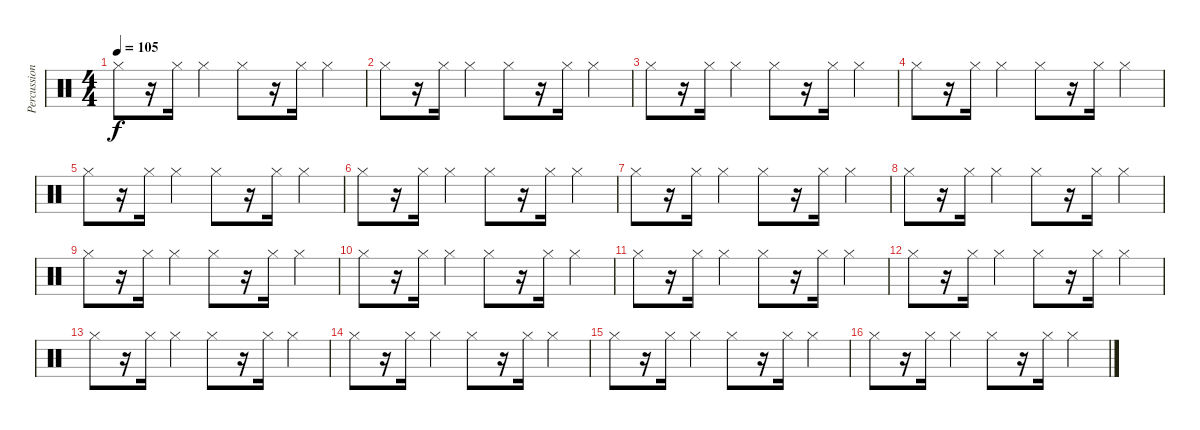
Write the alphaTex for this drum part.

\track ("Percussions" "Percussion") {instrument percussion}
\staff {score}
\articulation defaults
\ts (4 4)
\tempo 105
\clef neutral
\ks c "Hi-Hat (closed)".8{dy f}
r.16 "Hi-Hat (closed)".16 "Hi-Hat (closed)".4 "Hi-Hat (closed)".8 r.16 "Hi-Hat (closed)".16 "Hi-Hat (closed)".4 |
"Hi-Hat (closed)".8 r.16 "Hi-Hat (closed)".16 "Hi-Hat (closed)".4 "Hi-Hat (closed)".8 r.16 "Hi-Hat (closed)".16 "Hi-Hat (closed)".4 |
"Hi-Hat (closed)".8 r.16 "Hi-Hat (closed)".16 "Hi-Hat (closed)".4 "Hi-Hat (closed)".8 r.16 "Hi-Hat (closed)".16 "Hi-Hat (closed)".4 |
"Hi-Hat (closed)".8 r.16 "Hi-Hat (closed)".16 "Hi-Hat (closed)".4 "Hi-Hat (closed)".8 r.16 "Hi-Hat (closed)".16 "Hi-Hat (closed)".4 |
"Hi-Hat (closed)".8 r.16 "Hi-Hat (closed)".16 "Hi-Hat (closed)".4 "Hi-Hat (closed)".8 r.16 "Hi-Hat (closed)".16 "Hi-Hat (closed)".4 |
"Hi-Hat (closed)".8 r.16 "Hi-Hat (closed)".16 "Hi-Hat (closed)".4 "Hi-Hat (closed)".8 r.16 "Hi-Hat (closed)".16 "Hi-Hat (closed)".4 |
"Hi-Hat (closed)".8 r.16 "Hi-Hat (closed)".16 "Hi-Hat (closed)".4 "Hi-Hat (closed)".8 r.16 "Hi-Hat (closed)".16 "Hi-Hat (closed)".4 |
"Hi-Hat (closed)".8 r.16 "Hi-Hat (closed)".16 "Hi-Hat (closed)".4 "Hi-Hat (closed)".8 r.16 "Hi-Hat (closed)".16 "Hi-Hat (closed)".4 |
"Hi-Hat (closed)".8 r.16 "Hi-Hat (closed)".16 "Hi-Hat (closed)".4 "Hi-Hat (closed)".8 r.16 "Hi-Hat (closed)".16 "Hi-Hat (closed)".4 |
"Hi-Hat (closed)".8 r.16 "Hi-Hat (closed)".16 "Hi-Hat (closed)".4 "Hi-Hat (closed)".8 r.16 "Hi-Hat (closed)".16 "Hi-Hat (closed)".4 |
"Hi-Hat (closed)".8 r.16 "Hi-Hat (closed)".16 "Hi-Hat (closed)".4 "Hi-Hat (closed)".8 r.16 "Hi-Hat (closed)".16 "Hi-Hat (closed)".4 |
"Hi-Hat (closed)".8 r.16 "Hi-Hat (closed)".16 "Hi-Hat (closed)".4 "Hi-Hat (closed)".8 r.16 "Hi-Hat (closed)".16 "Hi-Hat (closed)".4 |
"Hi-Hat (closed)".8 r.16 "Hi-Hat (closed)".16 "Hi-Hat (closed)".4 "Hi-Hat (closed)".8 r.16 "Hi-Hat (closed)".16 "Hi-Hat (closed)".4 |
"Hi-Hat (closed)".8 r.16 "Hi-Hat (closed)".16 "Hi-Hat (closed)".4 "Hi-Hat (closed)".8 r.16 "Hi-Hat (closed)".16 "Hi-Hat (closed)".4 |
"Hi-Hat (closed)".8 r.16 "Hi-Hat (closed)".16 "Hi-Hat (closed)".4 "Hi-Hat (closed)".8 r.16 "Hi-Hat (closed)".16 "Hi-Hat (closed)".4 |
"Hi-Hat (closed)".8 r.16 "Hi-Hat (closed)".16 "Hi-Hat (closed)".4 "Hi-Hat (closed)".8 r.16 "Hi-Hat (closed)".16 "Hi-Hat (closed)".4
